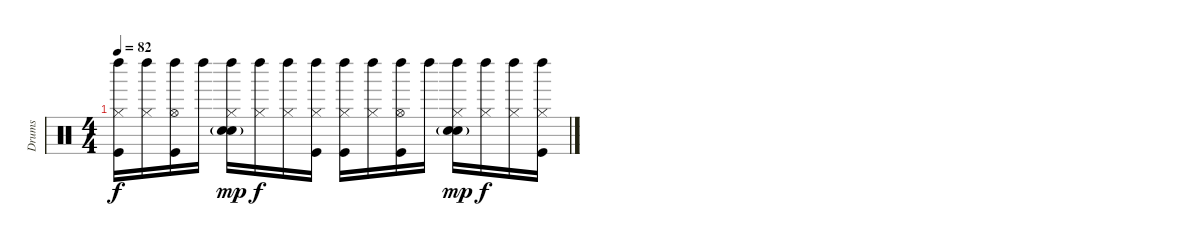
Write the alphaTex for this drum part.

\track ("Drums" "Drums") {instrument percussion}
\staff {score}
\articulation defaults
\ts (4 4)
\tempo 82
\clef neutral
\ks c
("Left Maraca (hit)" "Hi-Hat (closed)" "Kick (hit)").16{dy f} ("Left Maraca (hit)" "Hi-Hat (closed)").16 ("Left Maraca (hit)" "Hi-Hat (open)" "Kick (hit)").16 "Left Maraca (hit)".16 ("Left Maraca (hit)" "Hi-Hat (closed)" "Hand Clap (hit)" "Electric Snare (hit)"{g}).16{dy mp} ("Left Maraca (hit)" "Hi-Hat (closed)").16{dy f} ("Left Maraca (hit)" "Hi-Hat (closed)").16 ("Left Maraca (hit)" "Hi-Hat (closed)" "Kick (hit)").16 ("Left Maraca (hit)" "Hi-Hat (closed)" "Kick (hit)").16 ("Left Maraca (hit)" "Hi-Hat (closed)").16 ("Left Maraca (hit)" "Hi-Hat (open)" "Kick (hit)").16 "Left Maraca (hit)".16 ("Left Maraca (hit)" "Hi-Hat (closed)" "Hand Clap (hit)" "Electric Snare (hit)"{g}).16{dy mp} ("Left Maraca (hit)" "Hi-Hat (closed)").16{dy f} ("Left Maraca (hit)" "Hi-Hat (closed)").16 ("Left Maraca (hit)" "Hi-Hat (closed)" "Kick (hit)").16
